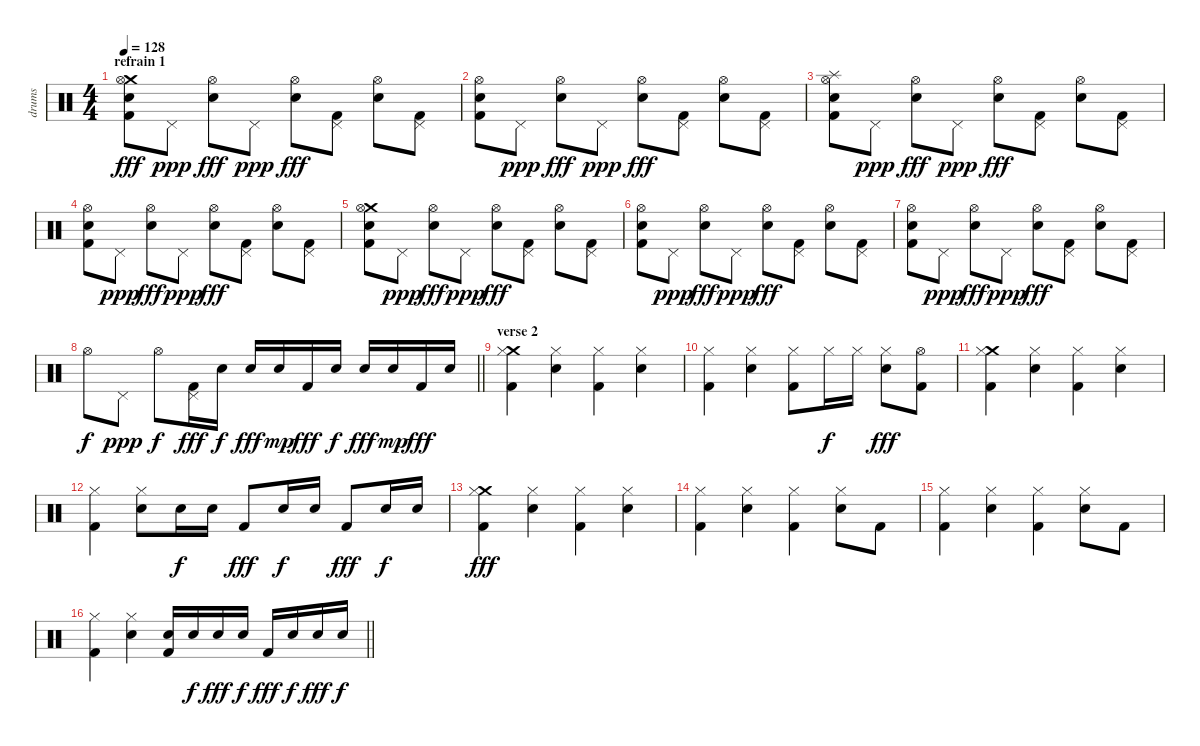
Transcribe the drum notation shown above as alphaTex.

\track ("drums" "drums") {instrument percussion}
\staff {score}
\articulation defaults
\ts (4 4)
\section ("" "refrain 1")
\tempo 128
\clef neutral
\ks c
("Crash medium (hit)" "Hi-Hat (open)" "Electric Snare (hit)" "Kick (hit) 2").8{dy fff} "Pedal Hi-Hat (hit)".8{dy ppp} ("Hi-Hat (open)" "Electric Snare (hit)").8{dy fff} "Pedal Hi-Hat (hit)".8{dy ppp} ("Hi-Hat (open)" "Electric Snare (hit)").8{dy fff} ("Pedal Hi-Hat (hit)" "Kick (hit) 2").8 ("Hi-Hat (open)" "Electric Snare (hit)").8 ("Pedal Hi-Hat (hit)" "Kick (hit) 2").8 |
("Hi-Hat (open)" "Electric Snare (hit)" "Kick (hit) 2").8 "Pedal Hi-Hat (hit)".8{dy ppp} ("Hi-Hat (open)" "Electric Snare (hit)").8{dy fff} "Pedal Hi-Hat (hit)".8{dy ppp} ("Hi-Hat (open)" "Electric Snare (hit)").8{dy fff} ("Pedal Hi-Hat (hit)" "Kick (hit) 2").8 ("Hi-Hat (open)" "Electric Snare (hit)").8 ("Pedal Hi-Hat (hit)" "Kick (hit) 2").8 |
("Splash (hit)" "Hi-Hat (open)" "Electric Snare (hit)" "Kick (hit) 2").8 "Pedal Hi-Hat (hit)".8{dy ppp} ("Hi-Hat (open)" "Electric Snare (hit)").8{dy fff} "Pedal Hi-Hat (hit)".8{dy ppp} ("Hi-Hat (open)" "Electric Snare (hit)").8{dy fff} ("Pedal Hi-Hat (hit)" "Kick (hit) 2").8 ("Hi-Hat (open)" "Electric Snare (hit)").8 ("Pedal Hi-Hat (hit)" "Kick (hit) 2").8 |
("Hi-Hat (open)" "Electric Snare (hit)" "Kick (hit) 2").8 "Pedal Hi-Hat (hit)".8{dy ppp} ("Hi-Hat (open)" "Electric Snare (hit)").8{dy fff} "Pedal Hi-Hat (hit)".8{dy ppp} ("Hi-Hat (open)" "Electric Snare (hit)").8{dy fff} ("Pedal Hi-Hat (hit)" "Kick (hit) 2").8 ("Hi-Hat (open)" "Electric Snare (hit)").8 ("Pedal Hi-Hat (hit)" "Kick (hit) 2").8 |
("Crash medium (hit)" "Hi-Hat (open)" "Electric Snare (hit)" "Kick (hit) 2").8 "Pedal Hi-Hat (hit)".8{dy ppp} ("Hi-Hat (open)" "Electric Snare (hit)").8{dy fff} "Pedal Hi-Hat (hit)".8{dy ppp} ("Hi-Hat (open)" "Electric Snare (hit)").8{dy fff} ("Pedal Hi-Hat (hit)" "Kick (hit) 2").8 ("Hi-Hat (open)" "Electric Snare (hit)").8 ("Pedal Hi-Hat (hit)" "Kick (hit) 2").8 |
("Hi-Hat (open)" "Electric Snare (hit)" "Kick (hit) 2").8 "Pedal Hi-Hat (hit)".8{dy ppp} ("Hi-Hat (open)" "Electric Snare (hit)").8{dy fff} "Pedal Hi-Hat (hit)".8{dy ppp} ("Hi-Hat (open)" "Electric Snare (hit)").8{dy fff} ("Pedal Hi-Hat (hit)" "Kick (hit) 2").8 ("Hi-Hat (open)" "Electric Snare (hit)").8 ("Pedal Hi-Hat (hit)" "Kick (hit) 2").8 |
("Hi-Hat (open)" "Electric Snare (hit)" "Kick (hit) 2").8 "Pedal Hi-Hat (hit)".8{dy ppp} ("Hi-Hat (open)" "Electric Snare (hit)").8{dy fff} "Pedal Hi-Hat (hit)".8{dy ppp} ("Hi-Hat (open)" "Electric Snare (hit)").8{dy fff} ("Pedal Hi-Hat (hit)" "Kick (hit) 2").8 ("Hi-Hat (open)" "Electric Snare (hit)").8 ("Pedal Hi-Hat (hit)" "Kick (hit) 2").8 |
\barLineRight lightlight "Hi-Hat (open)".8{dy f} "Pedal Hi-Hat (hit)".8{dy ppp} "Hi-Hat (open)".8{dy f}
("Pedal Hi-Hat (hit)" "Kick (hit) 2").16{dy fff} "Electric Snare (hit)".16{dy f} "Electric Snare (hit)".16{dy fff} "Electric Snare (hit)".16{dy mp} "Kick (hit) 2".16{dy fff} "Electric Snare (hit)".16{dy f} "Electric Snare (hit)".16{dy fff} "Electric Snare (hit)".16{dy mp} "Kick (hit) 2".16{dy fff} "Electric Snare (hit)".16 |
\section ("" "verse 2")
("Crash medium (hit)" "Hi-Hat (closed)" "Kick (hit) 2").4 ("Hi-Hat (closed)" "Electric Snare (hit)").4 ("Hi-Hat (closed)" "Kick (hit) 2").4 ("Hi-Hat (closed)" "Electric Snare (hit)").4 |
("Hi-Hat (closed)" "Kick (hit) 2").4 ("Hi-Hat (closed)" "Electric Snare (hit)").4 ("Hi-Hat (closed)" "Kick (hit) 2").8 "Hi-Hat (closed)".16{dy f} "Hi-Hat (closed)".16 ("Hi-Hat (closed)" "Electric Snare (hit)").8{dy fff} ("Hi-Hat (open)" "Kick (hit) 2").8 |
("Crash medium (hit)" "Hi-Hat (closed)" "Kick (hit) 2").4 ("Hi-Hat (closed)" "Electric Snare (hit)").4 ("Hi-Hat (closed)" "Kick (hit) 2").4 ("Hi-Hat (closed)" "Electric Snare (hit)").4 |
("Hi-Hat (closed)" "Kick (hit) 2").4 ("Hi-Hat (closed)" "Electric Snare (hit)").8 "Electric Snare (hit)".16{dy f} "Electric Snare (hit)".16 "Kick (hit) 2".8{dy fff} "Electric Snare (hit)".16{dy f} "Electric Snare (hit)".16 "Kick (hit) 2".8{dy fff} "Electric Snare (hit)".16{dy f} "Electric Snare (hit)".16 |
("Crash medium (hit)" "Hi-Hat (closed)" "Kick (hit) 2").4{dy fff} ("Hi-Hat (closed)" "Electric Snare (hit)").4 ("Hi-Hat (closed)" "Kick (hit) 2").4 ("Hi-Hat (closed)" "Electric Snare (hit)").4 |
("Hi-Hat (closed)" "Kick (hit) 2").4 ("Hi-Hat (closed)" "Electric Snare (hit)").4 ("Hi-Hat (closed)" "Kick (hit) 2").4 ("Hi-Hat (closed)" "Electric Snare (hit)").8 "Kick (hit) 2".8 |
("Hi-Hat (closed)" "Kick (hit) 2").4 ("Hi-Hat (closed)" "Electric Snare (hit)").4 ("Hi-Hat (closed)" "Kick (hit) 2").4 ("Hi-Hat (closed)" "Electric Snare (hit)").8 "Kick (hit) 2".8 |
\barLineRight lightlight
("Hi-Hat (closed)" "Kick (hit) 2").4 ("Hi-Hat (closed)" "Electric Snare (hit)").4 ("Electric Snare (hit)" "Kick (hit) 2").16 "Electric Snare (hit)".16{dy f} "Electric Snare (hit)".16{dy fff} "Electric Snare (hit)".16{dy f} "Kick (hit) 2".16{dy fff} "Electric Snare (hit)".16{dy f} "Electric Snare (hit)".16{dy fff} "Electric Snare (hit)".16{dy f}
